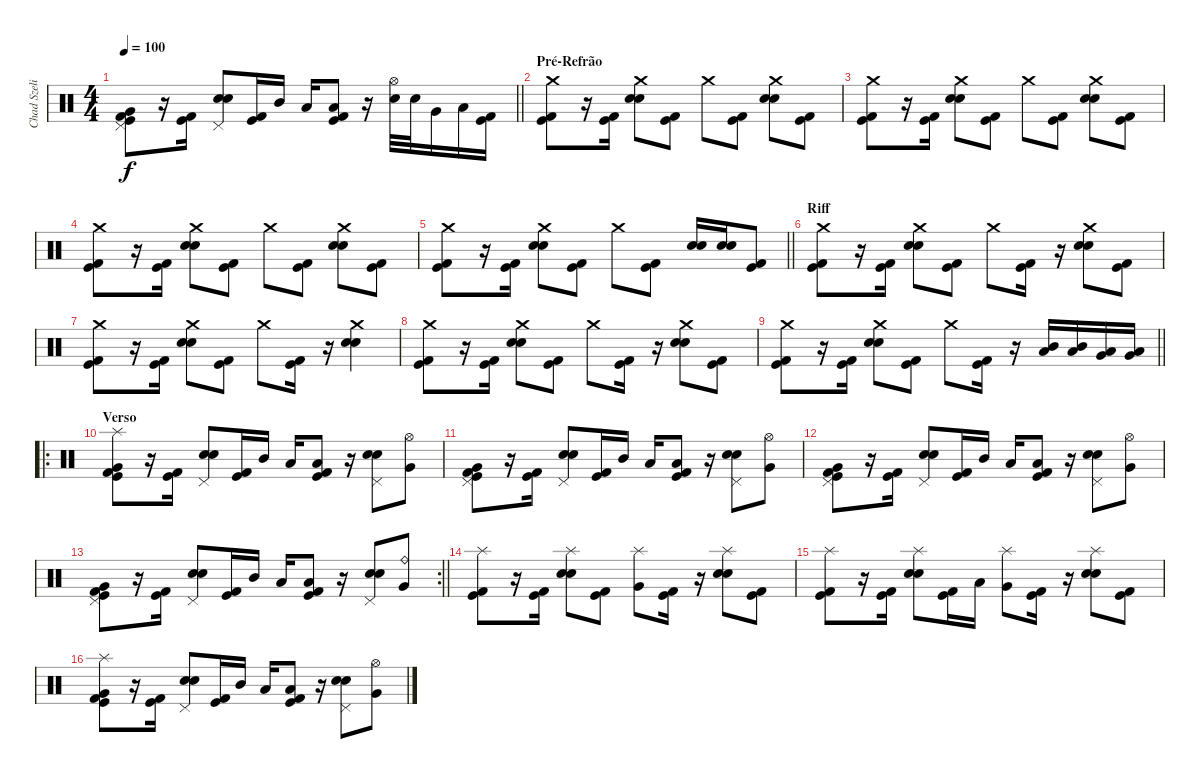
\track ("Chad Szeliga" "Chad Szeli") {instrument percussion}
\staff {score}
\articulation defaults
\ts (4 4)
\tempo 100
\clef neutral
\barLineRight lightlight
\ks c
("Kick (hit) 2" "Kick (hit)" "Very Low Tom (hit)" "Pedal Hi-Hat (hit)").8{dy f} r.16 ("Kick (hit) 2" "Kick (hit)").16{beam Down} ("Snare (hit) 2" "Snare (hit) 2" "Pedal Hi-Hat (hit)").8 ("Kick (hit) 2" "Kick (hit)").16 "Mid Tom (hit)".16 "Low Tom (hit)".16 ("Kick (hit) 2" "Kick (hit)" "Low Tom (hit)").8 r.16 ("Snare (hit) 2" "Hi-Hat (open)").32 "Snare (hit) 2".32 "Very Low Tom (hit)".16 "Low Tom (hit)".16 ("Kick (hit) 2" "Kick (hit)").16 |
\section ("" "Pré-Refrão")
("Crash medium (hit)" "Kick (hit) 2" "Kick (hit)").8 r.16 ("Kick (hit) 2" "Kick (hit)").16{beam Down} ("Crash medium (hit)" "Snare (hit) 2" "Snare (hit) 2").8 ("Kick (hit) 2" "Kick (hit)").8 "Crash medium (hit)".8 ("Kick (hit) 2" "Kick (hit)").8 ("Crash medium (hit)" "Snare (hit) 2" "Snare (hit) 2").8 ("Kick (hit) 2" "Kick (hit)").8 |
("Crash medium (hit)" "Kick (hit) 2" "Kick (hit)").8 r.16 ("Kick (hit) 2" "Kick (hit)").16{beam Down} ("Crash medium (hit)" "Snare (hit) 2" "Snare (hit) 2").8 ("Kick (hit) 2" "Kick (hit)").8 "Crash medium (hit)".8 ("Kick (hit) 2" "Kick (hit)").8 ("Crash medium (hit)" "Snare (hit) 2" "Snare (hit) 2").8 ("Kick (hit) 2" "Kick (hit)").8 |
("Crash medium (hit)" "Kick (hit) 2" "Kick (hit)").8 r.16 ("Kick (hit) 2" "Kick (hit)").16{beam Down} ("Crash medium (hit)" "Snare (hit) 2" "Snare (hit) 2").8 ("Kick (hit) 2" "Kick (hit)").8 "Crash medium (hit)".8 ("Kick (hit) 2" "Kick (hit)").8 ("Crash medium (hit)" "Snare (hit) 2" "Snare (hit) 2").8 ("Kick (hit) 2" "Kick (hit)").8 |
\barLineRight lightlight
("Crash medium (hit)" "Kick (hit) 2" "Kick (hit)").8 r.16 ("Kick (hit) 2" "Kick (hit)").16{beam Down} ("Crash medium (hit)" "Snare (hit) 2" "Snare (hit) 2").8 ("Kick (hit) 2" "Kick (hit)").8 "Crash medium (hit)".8 ("Kick (hit) 2" "Kick (hit)").8 ("Snare (hit) 2" "Snare (hit) 2").16 ("Snare (hit) 2" "Snare (hit) 2").16 ("Kick (hit) 2" "Kick (hit)").8 |
\section ("" "Riff")
("Crash medium (hit)" "Kick (hit) 2" "Kick (hit)").8 r.16 ("Kick (hit) 2" "Kick (hit)").16{beam Down} ("Crash medium (hit)" "Snare (hit) 2" "Snare (hit) 2").8 ("Kick (hit) 2" "Kick (hit)").8 "Crash medium (hit)".8 ("Kick (hit) 2" "Kick (hit)").16 r.16 ("Crash medium (hit)" "Snare (hit) 2" "Snare (hit) 2").8 ("Kick (hit) 2" "Kick (hit)").8 |
("Crash medium (hit)" "Kick (hit) 2" "Kick (hit)").8 r.16 ("Kick (hit) 2" "Kick (hit)").16 ("Crash medium (hit)" "Snare (hit) 2" "Snare (hit) 2").8 ("Kick (hit) 2" "Kick (hit)").8 "Crash medium (hit)".8 ("Kick (hit) 2" "Kick (hit)").16 r.16 ("Crash medium (hit)" "Snare (hit) 2" "Snare (hit) 2").4 |
("Crash medium (hit)" "Kick (hit) 2" "Kick (hit)").8 r.16 ("Kick (hit) 2" "Kick (hit)").16{beam Down} ("Crash medium (hit)" "Snare (hit) 2" "Snare (hit) 2").8 ("Kick (hit) 2" "Kick (hit)").8 "Crash medium (hit)".8 ("Kick (hit) 2" "Kick (hit)").16 r.16 ("Crash medium (hit)" "Snare (hit) 2" "Snare (hit) 2").8 ("Kick (hit) 2" "Kick (hit)").8 |
\barLineRight lightlight
("Crash medium (hit)" "Kick (hit) 2" "Kick (hit)").8 r.16 ("Kick (hit) 2" "Kick (hit)").16 ("Crash medium (hit)" "Snare (hit) 2" "Snare (hit) 2").8 ("Kick (hit) 2" "Kick (hit)").8 "Crash medium (hit)".8 ("Kick (hit) 2" "Kick (hit)").16 r.16 ("Mid Tom (hit)" "Low Tom (hit)").16 ("Mid Tom (hit)" "Low Tom (hit)").16 ("Very Low Tom (hit)" "Low Tom (hit)").16 ("Very Low Tom (hit)" "Low Tom (hit)").16 |
\ro
\section ("" "Verso")
("Splash (hit)" "Kick (hit) 2" "Kick (hit)" "Very Low Tom (hit)").8 r.16 ("Kick (hit) 2" "Kick (hit)").16{beam Down} ("Snare (hit) 2" "Snare (hit) 2" "Pedal Hi-Hat (hit)").8 ("Kick (hit) 2" "Kick (hit)").16 "Mid Tom (hit)".16 "Low Tom (hit)".16 ("Kick (hit) 2" "Kick (hit)" "Low Tom (hit)").8 r.16 ("Snare (hit) 2" "Snare (hit) 2" "Pedal Hi-Hat (hit)").8 ("Very Low Tom (hit)" "Hi-Hat (open)").8 |
("Kick (hit) 2" "Kick (hit)" "Very Low Tom (hit)" "Pedal Hi-Hat (hit)").8 r.16 ("Kick (hit) 2" "Kick (hit)").16{beam Down} ("Snare (hit) 2" "Snare (hit) 2" "Pedal Hi-Hat (hit)").8 ("Kick (hit) 2" "Kick (hit)").16 "Mid Tom (hit)".16 "Low Tom (hit)".16 ("Kick (hit) 2" "Kick (hit)" "Low Tom (hit)").8 r.16 ("Snare (hit) 2" "Snare (hit) 2" "Pedal Hi-Hat (hit)").8 ("Very Low Tom (hit)" "Hi-Hat (open)").8 |
("Kick (hit) 2" "Kick (hit)" "Very Low Tom (hit)" "Pedal Hi-Hat (hit)").8 r.16 ("Kick (hit) 2" "Kick (hit)").16{beam Down} ("Snare (hit) 2" "Snare (hit) 2" "Pedal Hi-Hat (hit)").8 ("Kick (hit) 2" "Kick (hit)").16 "Mid Tom (hit)".16 "Low Tom (hit)".16 ("Kick (hit) 2" "Kick (hit)" "Low Tom (hit)").8 r.16 ("Snare (hit) 2" "Snare (hit) 2" "Pedal Hi-Hat (hit)").8 ("Very Low Tom (hit)" "Hi-Hat (open)").8 |
\rc 2
\barLineRight lightlight
("Kick (hit) 2" "Kick (hit)" "Very Low Tom (hit)" "Pedal Hi-Hat (hit)").8 r.16 ("Kick (hit) 2" "Kick (hit)").16{beam Down} ("Snare (hit) 2" "Snare (hit) 2" "Pedal Hi-Hat (hit)").8 ("Kick (hit) 2" "Kick (hit)").16 "Mid Tom (hit)".16 "Low Tom (hit)".16 ("Kick (hit) 2" "Kick (hit)" "Low Tom (hit)").8 r.16 ("Snare (hit) 2" "Snare (hit) 2" "Pedal Hi-Hat (hit)").8 ("Ride (bell)" "Very Low Tom (hit)").8 |
("Splash (hit)" "Kick (hit) 2" "Kick (hit)").8 r.16 ("Kick (hit) 2" "Kick (hit)").16{beam Down} ("Splash (hit)" "Snare (hit) 2" "Snare (hit) 2").8 ("Kick (hit) 2" "Kick (hit)").8 ("Splash (hit)" "Very Low Tom (hit)").8 ("Kick (hit) 2" "Kick (hit)").16 r.16 ("Splash (hit)" "Snare (hit) 2" "Snare (hit) 2").8 ("Kick (hit) 2" "Kick (hit)").8 |
("Splash (hit)" "Kick (hit) 2" "Kick (hit)").8 r.16 ("Kick (hit) 2" "Kick (hit)").16{beam Down} ("Splash (hit)" "Snare (hit) 2" "Snare (hit) 2").8 ("Kick (hit) 2" "Kick (hit)").16 "Low Tom (hit)".16 ("Splash (hit)" "Very Low Tom (hit)").8 ("Kick (hit) 2" "Kick (hit)").16 r.16 ("Splash (hit)" "Snare (hit) 2" "Snare (hit) 2").8 ("Kick (hit) 2" "Kick (hit)").8 |
("Splash (hit)" "Kick (hit) 2" "Kick (hit)" "Very Low Tom (hit)").8 r.16 ("Kick (hit) 2" "Kick (hit)").16{beam Down} ("Snare (hit) 2" "Snare (hit) 2" "Pedal Hi-Hat (hit)").8 ("Kick (hit) 2" "Kick (hit)").16 "Mid Tom (hit)".16 "Low Tom (hit)".16 ("Kick (hit) 2" "Kick (hit)" "Low Tom (hit)").8 r.16 ("Snare (hit) 2" "Snare (hit) 2" "Pedal Hi-Hat (hit)").8 ("Very Low Tom (hit)" "Hi-Hat (open)").8
